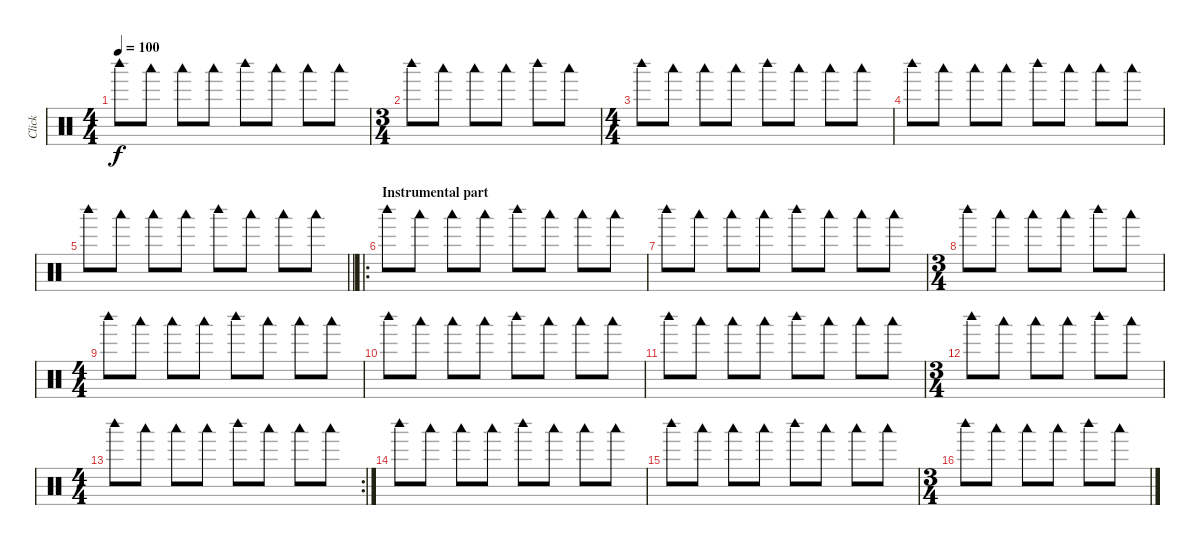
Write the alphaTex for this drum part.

\track ("Click" "Click") {mute instrument percussion}
\staff {score}
\articulation defaults
\ts (4 4)
\tempo 100
\clef neutral
\ks c "Woodblock high (hit)".8{dy f} "Woodblock low (hit)".8 "Woodblock low (hit)".8 "Woodblock low (hit)".8 "Woodblock high (hit)".8 "Woodblock low (hit)".8 "Woodblock low (hit)".8 "Woodblock low (hit)".8
|
\ts (3 4)
"Woodblock high (hit)".8 "Woodblock low (hit)".8 "Woodblock low (hit)".8 "Woodblock low (hit)".8 "Woodblock high (hit)".8 "Woodblock low (hit)".8 |
\ts (4 4)
"Woodblock high (hit)".8 "Woodblock low (hit)".8 "Woodblock low (hit)".8 "Woodblock low (hit)".8 "Woodblock high (hit)".8 "Woodblock low (hit)".8 "Woodblock low (hit)".8 "Woodblock low (hit)".8 |
"Woodblock high (hit)".8 "Woodblock low (hit)".8 "Woodblock low (hit)".8 "Woodblock low (hit)".8 "Woodblock high (hit)".8 "Woodblock low (hit)".8 "Woodblock low (hit)".8 "Woodblock low (hit)".8 |
\barLineRight lightlight "Woodblock high (hit)".8 "Woodblock low (hit)".8 "Woodblock low (hit)".8 "Woodblock low (hit)".8 "Woodblock high (hit)".8 "Woodblock low (hit)".8 "Woodblock low (hit)".8 "Woodblock low (hit)".8
|
\ro
\section ("" "Instrumental part")
"Woodblock high (hit)".8 "Woodblock low (hit)".8 "Woodblock low (hit)".8 "Woodblock low (hit)".8 "Woodblock high (hit)".8 "Woodblock low (hit)".8 "Woodblock low (hit)".8 "Woodblock low (hit)".8 |
"Woodblock high (hit)".8 "Woodblock low (hit)".8 "Woodblock low (hit)".8 "Woodblock low (hit)".8 "Woodblock high (hit)".8 "Woodblock low (hit)".8 "Woodblock low (hit)".8 "Woodblock low (hit)".8 |
\ts (3 4)
"Woodblock high (hit)".8 "Woodblock low (hit)".8 "Woodblock low (hit)".8 "Woodblock low (hit)".8 "Woodblock high (hit)".8 "Woodblock low (hit)".8 |
\ts (4 4)
"Woodblock high (hit)".8 "Woodblock low (hit)".8 "Woodblock low (hit)".8 "Woodblock low (hit)".8 "Woodblock high (hit)".8 "Woodblock low (hit)".8 "Woodblock low (hit)".8 "Woodblock low (hit)".8 |
"Woodblock high (hit)".8 "Woodblock low (hit)".8 "Woodblock low (hit)".8 "Woodblock low (hit)".8 "Woodblock high (hit)".8 "Woodblock low (hit)".8 "Woodblock low (hit)".8 "Woodblock low (hit)".8 |
"Woodblock high (hit)".8 "Woodblock low (hit)".8 "Woodblock low (hit)".8 "Woodblock low (hit)".8 "Woodblock high (hit)".8 "Woodblock low (hit)".8 "Woodblock low (hit)".8 "Woodblock low (hit)".8 |
\ts (3 4)
"Woodblock high (hit)".8 "Woodblock low (hit)".8 "Woodblock low (hit)".8 "Woodblock low (hit)".8 "Woodblock high (hit)".8 "Woodblock low (hit)".8 |
\rc 2
\ts (4 4)
"Woodblock high (hit)".8 "Woodblock low (hit)".8 "Woodblock low (hit)".8 "Woodblock low (hit)".8 "Woodblock high (hit)".8 "Woodblock low (hit)".8 "Woodblock low (hit)".8 "Woodblock low (hit)".8 |
"Woodblock high (hit)".8 "Woodblock low (hit)".8 "Woodblock low (hit)".8 "Woodblock low (hit)".8 "Woodblock high (hit)".8 "Woodblock low (hit)".8 "Woodblock low (hit)".8 "Woodblock low (hit)".8 |
"Woodblock high (hit)".8 "Woodblock low (hit)".8 "Woodblock low (hit)".8 "Woodblock low (hit)".8 "Woodblock high (hit)".8 "Woodblock low (hit)".8 "Woodblock low (hit)".8 "Woodblock low (hit)".8 |
\ts (3 4)
"Woodblock high (hit)".8 "Woodblock low (hit)".8 "Woodblock low (hit)".8 "Woodblock low (hit)".8 "Woodblock high (hit)".8 "Woodblock low (hit)".8
